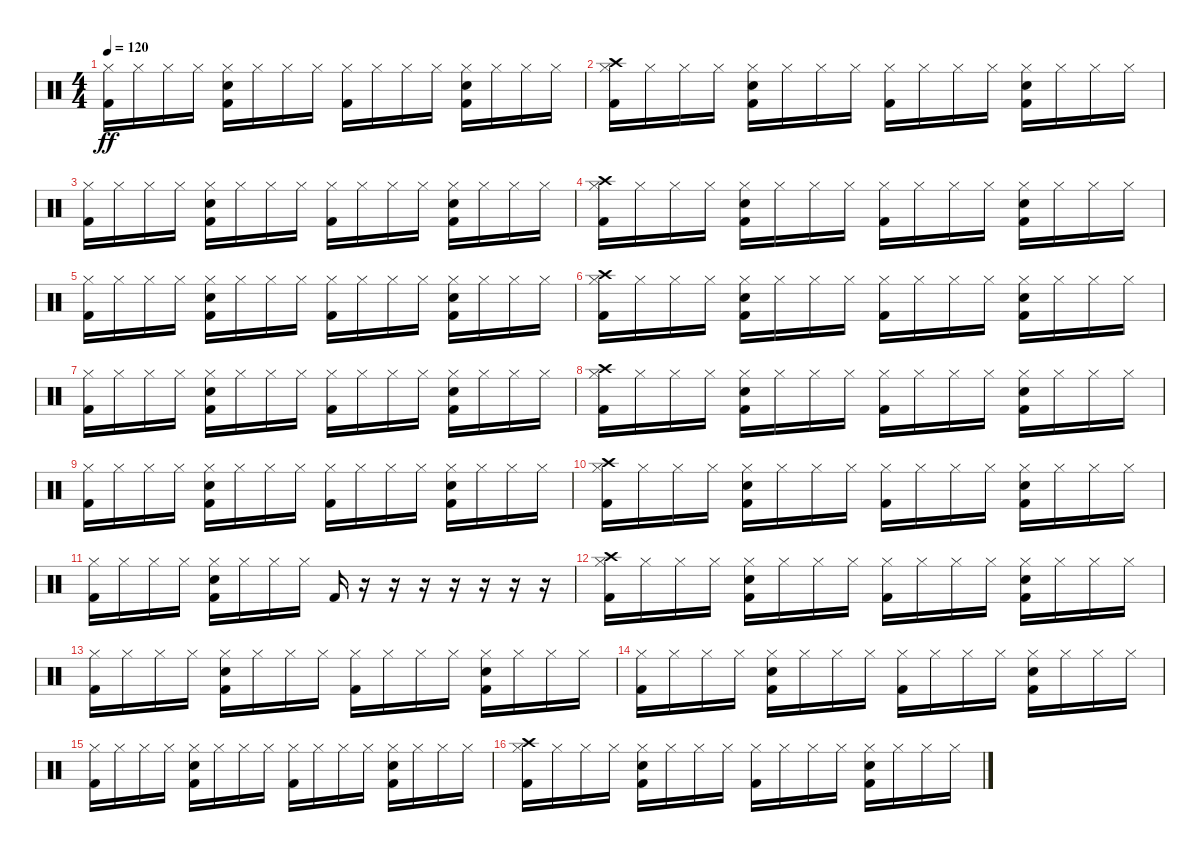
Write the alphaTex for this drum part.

\track "" {instrument percussion}
\staff {score}
\articulation defaults
\ts (4 4)
\tempo 120
\clef neutral
\ks c
("Hi-Hat (closed)" "Kick (hit) 2").16{dy ff} "Hi-Hat (closed)".16 "Hi-Hat (closed)".16 "Hi-Hat (closed)".16 ("Hi-Hat (closed)" "Electric Snare (hit)" "Kick (hit) 2").16 "Hi-Hat (closed)".16 "Hi-Hat (closed)".16 "Hi-Hat (closed)".16 ("Hi-Hat (closed)" "Kick (hit) 2").16 "Hi-Hat (closed)".16 "Hi-Hat (closed)".16 "Hi-Hat (closed)".16 ("Hi-Hat (closed)" "Electric Snare (hit)" "Kick (hit) 2").16 "Hi-Hat (closed)".16 "Hi-Hat (closed)".16 "Hi-Hat (closed)".16 |
("Crash high (hit)" "Hi-Hat (closed)" "Kick (hit) 2").16 "Hi-Hat (closed)".16 "Hi-Hat (closed)".16 "Hi-Hat (closed)".16 ("Hi-Hat (closed)" "Electric Snare (hit)" "Kick (hit) 2").16 "Hi-Hat (closed)".16 "Hi-Hat (closed)".16 "Hi-Hat (closed)".16 ("Hi-Hat (closed)" "Kick (hit) 2").16 "Hi-Hat (closed)".16 "Hi-Hat (closed)".16 "Hi-Hat (closed)".16 ("Hi-Hat (closed)" "Electric Snare (hit)" "Kick (hit) 2").16 "Hi-Hat (closed)".16 "Hi-Hat (closed)".16 "Hi-Hat (closed)".16 |
("Hi-Hat (closed)" "Kick (hit) 2").16 "Hi-Hat (closed)".16 "Hi-Hat (closed)".16 "Hi-Hat (closed)".16 ("Hi-Hat (closed)" "Electric Snare (hit)" "Kick (hit) 2").16 "Hi-Hat (closed)".16 "Hi-Hat (closed)".16 "Hi-Hat (closed)".16 ("Hi-Hat (closed)" "Kick (hit) 2").16 "Hi-Hat (closed)".16 "Hi-Hat (closed)".16 "Hi-Hat (closed)".16 ("Hi-Hat (closed)" "Electric Snare (hit)" "Kick (hit) 2").16 "Hi-Hat (closed)".16 "Hi-Hat (closed)".16 "Hi-Hat (closed)".16 |
("Crash high (hit)" "Hi-Hat (closed)" "Kick (hit) 2").16 "Hi-Hat (closed)".16 "Hi-Hat (closed)".16 "Hi-Hat (closed)".16 ("Hi-Hat (closed)" "Electric Snare (hit)" "Kick (hit) 2").16 "Hi-Hat (closed)".16 "Hi-Hat (closed)".16 "Hi-Hat (closed)".16 ("Hi-Hat (closed)" "Kick (hit) 2").16 "Hi-Hat (closed)".16 "Hi-Hat (closed)".16 "Hi-Hat (closed)".16 ("Hi-Hat (closed)" "Electric Snare (hit)" "Kick (hit) 2").16 "Hi-Hat (closed)".16 "Hi-Hat (closed)".16 "Hi-Hat (closed)".16 |
("Hi-Hat (closed)" "Kick (hit) 2").16 "Hi-Hat (closed)".16 "Hi-Hat (closed)".16 "Hi-Hat (closed)".16 ("Hi-Hat (closed)" "Electric Snare (hit)" "Kick (hit) 2").16 "Hi-Hat (closed)".16 "Hi-Hat (closed)".16 "Hi-Hat (closed)".16 ("Hi-Hat (closed)" "Kick (hit) 2").16 "Hi-Hat (closed)".16 "Hi-Hat (closed)".16 "Hi-Hat (closed)".16 ("Hi-Hat (closed)" "Electric Snare (hit)" "Kick (hit) 2").16 "Hi-Hat (closed)".16 "Hi-Hat (closed)".16 "Hi-Hat (closed)".16 |
("Crash high (hit)" "Hi-Hat (closed)" "Kick (hit) 2").16 "Hi-Hat (closed)".16 "Hi-Hat (closed)".16 "Hi-Hat (closed)".16 ("Hi-Hat (closed)" "Electric Snare (hit)" "Kick (hit) 2").16 "Hi-Hat (closed)".16 "Hi-Hat (closed)".16 "Hi-Hat (closed)".16 ("Hi-Hat (closed)" "Kick (hit) 2").16 "Hi-Hat (closed)".16 "Hi-Hat (closed)".16 "Hi-Hat (closed)".16 ("Hi-Hat (closed)" "Electric Snare (hit)" "Kick (hit) 2").16 "Hi-Hat (closed)".16 "Hi-Hat (closed)".16 "Hi-Hat (closed)".16 |
("Hi-Hat (closed)" "Kick (hit) 2").16 "Hi-Hat (closed)".16 "Hi-Hat (closed)".16 "Hi-Hat (closed)".16 ("Hi-Hat (closed)" "Electric Snare (hit)" "Kick (hit) 2").16 "Hi-Hat (closed)".16 "Hi-Hat (closed)".16 "Hi-Hat (closed)".16 ("Hi-Hat (closed)" "Kick (hit) 2").16 "Hi-Hat (closed)".16 "Hi-Hat (closed)".16 "Hi-Hat (closed)".16 ("Hi-Hat (closed)" "Electric Snare (hit)" "Kick (hit) 2").16 "Hi-Hat (closed)".16 "Hi-Hat (closed)".16 "Hi-Hat (closed)".16 |
("Crash high (hit)" "Hi-Hat (closed)" "Kick (hit) 2").16 "Hi-Hat (closed)".16 "Hi-Hat (closed)".16 "Hi-Hat (closed)".16 ("Hi-Hat (closed)" "Electric Snare (hit)" "Kick (hit) 2").16 "Hi-Hat (closed)".16 "Hi-Hat (closed)".16 "Hi-Hat (closed)".16 ("Hi-Hat (closed)" "Kick (hit) 2").16 "Hi-Hat (closed)".16 "Hi-Hat (closed)".16 "Hi-Hat (closed)".16 ("Hi-Hat (closed)" "Electric Snare (hit)" "Kick (hit) 2").16 "Hi-Hat (closed)".16 "Hi-Hat (closed)".16 "Hi-Hat (closed)".16 |
("Hi-Hat (closed)" "Kick (hit) 2").16 "Hi-Hat (closed)".16 "Hi-Hat (closed)".16 "Hi-Hat (closed)".16 ("Hi-Hat (closed)" "Electric Snare (hit)" "Kick (hit) 2").16 "Hi-Hat (closed)".16 "Hi-Hat (closed)".16 "Hi-Hat (closed)".16 ("Hi-Hat (closed)" "Kick (hit) 2").16 "Hi-Hat (closed)".16 "Hi-Hat (closed)".16 "Hi-Hat (closed)".16 ("Hi-Hat (closed)" "Electric Snare (hit)" "Kick (hit) 2").16 "Hi-Hat (closed)".16 "Hi-Hat (closed)".16 "Hi-Hat (closed)".16 |
("Crash high (hit)" "Hi-Hat (closed)" "Kick (hit) 2").16 "Hi-Hat (closed)".16 "Hi-Hat (closed)".16 "Hi-Hat (closed)".16 ("Hi-Hat (closed)" "Electric Snare (hit)" "Kick (hit) 2").16 "Hi-Hat (closed)".16 "Hi-Hat (closed)".16 "Hi-Hat (closed)".16 ("Hi-Hat (closed)" "Kick (hit) 2").16 "Hi-Hat (closed)".16 "Hi-Hat (closed)".16 "Hi-Hat (closed)".16 ("Hi-Hat (closed)" "Electric Snare (hit)" "Kick (hit) 2").16 "Hi-Hat (closed)".16 "Hi-Hat (closed)".16 "Hi-Hat (closed)".16 |
("Hi-Hat (closed)" "Kick (hit) 2").16 "Hi-Hat (closed)".16 "Hi-Hat (closed)".16 "Hi-Hat (closed)".16 ("Hi-Hat (closed)" "Electric Snare (hit)" "Kick (hit) 2").16 "Hi-Hat (closed)".16 "Hi-Hat (closed)".16 "Hi-Hat (closed)".16 "Kick (hit) 2".16 r.16 r.16 r.16 r.16 r.16 r.16 r.16 |
("Crash high (hit)" "Hi-Hat (closed)" "Kick (hit) 2").16 "Hi-Hat (closed)".16 "Hi-Hat (closed)".16 "Hi-Hat (closed)".16 ("Hi-Hat (closed)" "Electric Snare (hit)" "Kick (hit) 2").16 "Hi-Hat (closed)".16 "Hi-Hat (closed)".16 "Hi-Hat (closed)".16 ("Hi-Hat (closed)" "Kick (hit) 2").16 "Hi-Hat (closed)".16 "Hi-Hat (closed)".16 "Hi-Hat (closed)".16 ("Hi-Hat (closed)" "Electric Snare (hit)" "Kick (hit) 2").16 "Hi-Hat (closed)".16 "Hi-Hat (closed)".16 "Hi-Hat (closed)".16 |
("Hi-Hat (closed)" "Kick (hit) 2").16 "Hi-Hat (closed)".16 "Hi-Hat (closed)".16 "Hi-Hat (closed)".16 ("Hi-Hat (closed)" "Electric Snare (hit)" "Kick (hit) 2").16 "Hi-Hat (closed)".16 "Hi-Hat (closed)".16 "Hi-Hat (closed)".16 ("Hi-Hat (closed)" "Kick (hit) 2").16 "Hi-Hat (closed)".16 "Hi-Hat (closed)".16 "Hi-Hat (closed)".16 ("Hi-Hat (closed)" "Electric Snare (hit)" "Kick (hit) 2").16 "Hi-Hat (closed)".16 "Hi-Hat (closed)".16 "Hi-Hat (closed)".16 |
("Hi-Hat (closed)" "Kick (hit) 2").16 "Hi-Hat (closed)".16 "Hi-Hat (closed)".16 "Hi-Hat (closed)".16 ("Hi-Hat (closed)" "Electric Snare (hit)" "Kick (hit) 2").16 "Hi-Hat (closed)".16 "Hi-Hat (closed)".16 "Hi-Hat (closed)".16 ("Hi-Hat (closed)" "Kick (hit) 2").16 "Hi-Hat (closed)".16 "Hi-Hat (closed)".16 "Hi-Hat (closed)".16 ("Hi-Hat (closed)" "Electric Snare (hit)" "Kick (hit) 2").16 "Hi-Hat (closed)".16 "Hi-Hat (closed)".16 "Hi-Hat (closed)".16 |
("Hi-Hat (closed)" "Kick (hit) 2").16 "Hi-Hat (closed)".16 "Hi-Hat (closed)".16 "Hi-Hat (closed)".16 ("Hi-Hat (closed)" "Electric Snare (hit)" "Kick (hit) 2").16 "Hi-Hat (closed)".16 "Hi-Hat (closed)".16 "Hi-Hat (closed)".16 ("Hi-Hat (closed)" "Kick (hit) 2").16 "Hi-Hat (closed)".16 "Hi-Hat (closed)".16 "Hi-Hat (closed)".16 ("Hi-Hat (closed)" "Electric Snare (hit)" "Kick (hit) 2").16 "Hi-Hat (closed)".16 "Hi-Hat (closed)".16 "Hi-Hat (closed)".16 |
("Crash high (hit)" "Hi-Hat (closed)" "Kick (hit) 2").16 "Hi-Hat (closed)".16 "Hi-Hat (closed)".16 "Hi-Hat (closed)".16 ("Hi-Hat (closed)" "Electric Snare (hit)" "Kick (hit) 2").16 "Hi-Hat (closed)".16 "Hi-Hat (closed)".16 "Hi-Hat (closed)".16 ("Hi-Hat (closed)" "Kick (hit) 2").16 "Hi-Hat (closed)".16 "Hi-Hat (closed)".16 "Hi-Hat (closed)".16 ("Hi-Hat (closed)" "Electric Snare (hit)" "Kick (hit) 2").16 "Hi-Hat (closed)".16 "Hi-Hat (closed)".16 "Hi-Hat (closed)".16
